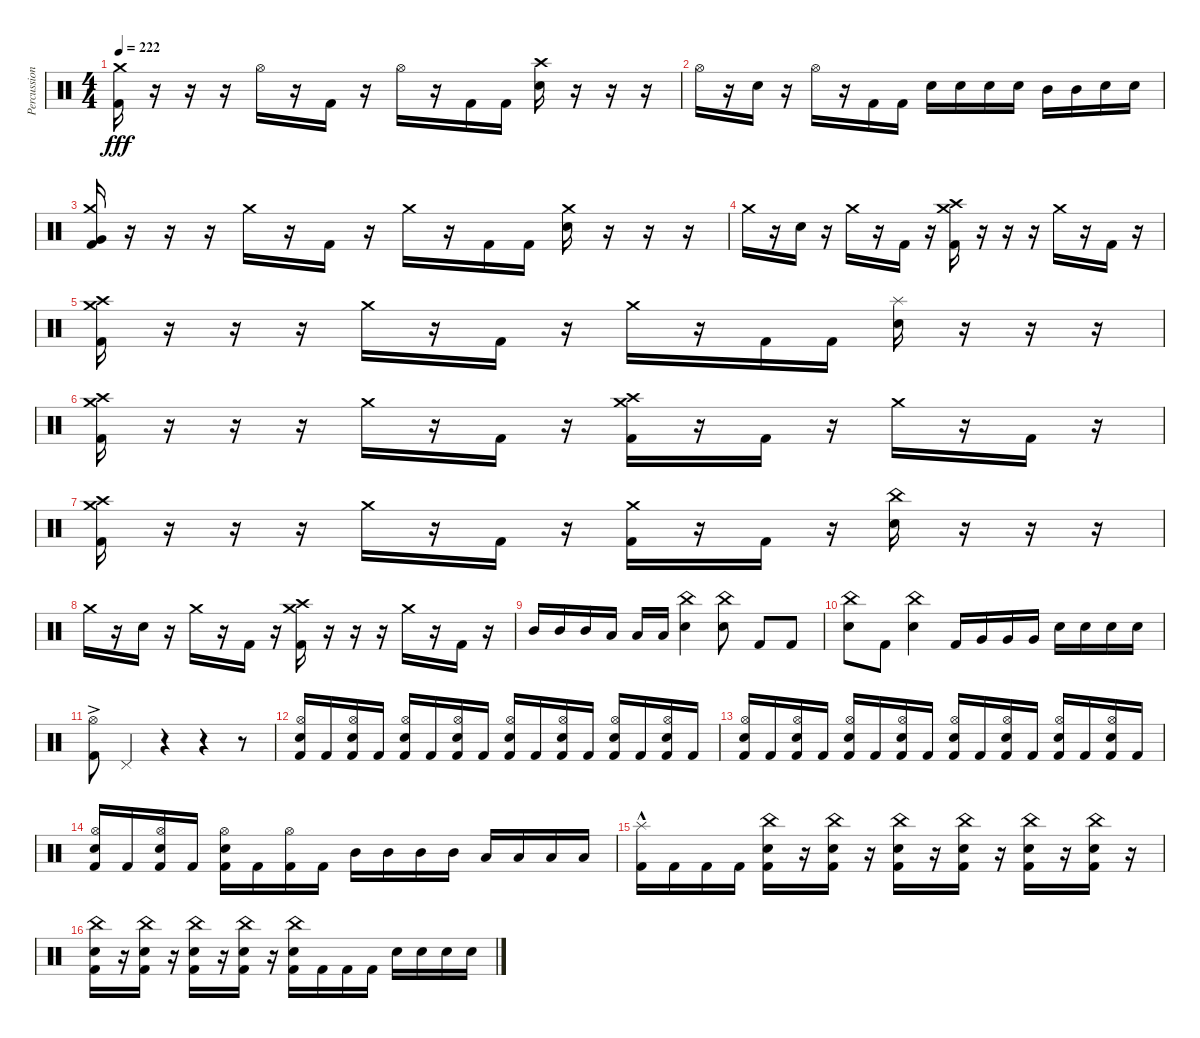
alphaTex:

\track ("Percussion" "Percussion") {instrument percussion}
\staff {score}
\articulation defaults
\ts (4 4)
\tempo 222
\clef neutral
\ks c
("Kick (hit) 2" "Crash medium (hit)").16{dy fff} r.16 r.16 r.16 "Hi-Hat (open)".16 r.16 "Kick (hit) 2".16 r.16 "Hi-Hat (open)".16 r.16 "Kick (hit) 2".16 "Kick (hit) 2".16 ("Electric Snare (hit)" "Crash high (hit)").16 r.16 r.16 r.16 |
"Hi-Hat (open)".16 r.16 "Electric Snare (hit)".16 r.16 "Hi-Hat (open)".16 r.16 "Kick (hit) 2".16 "Kick (hit) 2".16 "Electric Snare (hit)".16 "Electric Snare (hit)".16 "Electric Snare (hit)".16 "Electric Snare (hit)".16 "Mid Tom (hit)".16 "Mid Tom (hit)".16 "Electric Snare (hit)".16 "Electric Snare (hit)".16 |
("Kick (hit) 2" "Very Low Tom (hit)" "Crash medium (hit)").16 r.16 r.16 r.16 "Crash medium (hit)".16 r.16 "Kick (hit) 2".16 r.16 "Crash medium (hit)".16 r.16 "Kick (hit) 2".16 "Kick (hit) 2".16 ("Electric Snare (hit)" "Crash medium (hit)").16 r.16 r.16 r.16 |
"Crash medium (hit)".16 r.16 "Electric Snare (hit)".16 r.16 "Crash medium (hit)".16 r.16 "Kick (hit) 2".16 r.16 ("Kick (hit) 2" "Crash high (hit)" "Crash medium (hit)").16 r.16 r.16 r.16 "Crash medium (hit)".16 r.16 "Kick (hit) 2".16 r.16 |
("Kick (hit) 2" "Crash medium (hit)" "Crash high (hit)").16 r.16 r.16 r.16 "Crash medium (hit)".16 r.16 "Kick (hit) 2".16 r.16 "Crash medium (hit)".16 r.16 "Kick (hit) 2".16 "Kick (hit) 2".16 ("Electric Snare (hit)" "Splash (hit)").16 r.16 r.16 r.16 |
("Kick (hit) 2" "Crash medium (hit)" "Crash high (hit)").16 r.16 r.16 r.16 "Crash medium (hit)".16 r.16 "Kick (hit) 2".16 r.16 ("Kick (hit) 2" "Crash high (hit)" "Crash medium (hit)").16 r.16 "Kick (hit) 2".16 r.16 "Crash medium (hit)".16 r.16 "Kick (hit) 2".16 r.16 |
("Kick (hit) 2" "Crash high (hit)" "Crash medium (hit)").16 r.16 r.16 r.16 "Crash medium (hit)".16 r.16 "Kick (hit) 2".16 r.16 ("Kick (hit) 2" "Crash medium (hit)").16 r.16 "Kick (hit) 2".16 r.16 ("Electric Snare (hit)" "China (hit)").16 r.16 r.16 r.16 |
"Crash medium (hit)".16 r.16 "Electric Snare (hit)".16 r.16 "Crash medium (hit)".16 r.16 "Kick (hit) 2".16 r.16 ("Kick (hit) 2" "Crash high (hit)" "Crash medium (hit)").16 r.16 r.16 r.16 "Crash medium (hit)".16 r.16 "Kick (hit) 2".16 r.16 |
"Mid Tom (hit)".16 "Mid Tom (hit)".16 "Mid Tom (hit)".16 "Low Tom (hit)".16 "Low Tom (hit)".16 "Low Tom (hit)".16 ("Electric Snare (hit)" "China (hit)").4 ("Electric Snare (hit)" "China (hit)").8 "Kick (hit) 2".8 "Kick (hit) 2".8 |
("Electric Snare (hit)" "China (hit)").8 "Kick (hit) 2".8 ("Electric Snare (hit)" "China (hit)").4 "Kick (hit) 2".16 "Very Low Tom (hit)".16 "Very Low Tom (hit)".16 "Very Low Tom (hit)".16 "Electric Snare (hit)".16 "Electric Snare (hit)".16 "Electric Snare (hit)".16 "Electric Snare (hit)".16 |
("Hi-Hat (open)"{ac} "Kick (hit) 2").8 "Pedal Hi-Hat (hit)".4 r.4 r.4 r.8 |
("Hi-Hat (open)" "Electric Snare (hit)" "Kick (hit) 2").16 "Kick (hit) 2".16 ("Hi-Hat (open)" "Electric Snare (hit)" "Kick (hit) 2").16 "Kick (hit) 2".16 ("Hi-Hat (open)" "Electric Snare (hit)" "Kick (hit) 2").16 "Kick (hit) 2".16 ("Hi-Hat (open)" "Electric Snare (hit)" "Kick (hit) 2").16 "Kick (hit) 2".16 ("Hi-Hat (open)" "Electric Snare (hit)" "Kick (hit) 2").16 "Kick (hit) 2".16 ("Hi-Hat (open)" "Electric Snare (hit)" "Kick (hit) 2").16 "Kick (hit) 2".16 ("Hi-Hat (open)" "Electric Snare (hit)" "Kick (hit) 2").16 "Kick (hit) 2".16 ("Hi-Hat (open)" "Electric Snare (hit)" "Kick (hit) 2").16 "Kick (hit) 2".16 |
("Hi-Hat (open)" "Electric Snare (hit)" "Kick (hit) 2").16 "Kick (hit) 2".16 ("Hi-Hat (open)" "Electric Snare (hit)" "Kick (hit) 2").16 "Kick (hit) 2".16 ("Hi-Hat (open)" "Electric Snare (hit)" "Kick (hit) 2").16 "Kick (hit) 2".16 ("Hi-Hat (open)" "Electric Snare (hit)" "Kick (hit) 2").16 "Kick (hit) 2".16 ("Hi-Hat (open)" "Electric Snare (hit)" "Kick (hit) 2").16 "Kick (hit) 2".16 ("Hi-Hat (open)" "Electric Snare (hit)" "Kick (hit) 2").16 "Kick (hit) 2".16 ("Hi-Hat (open)" "Electric Snare (hit)" "Kick (hit) 2").16 "Kick (hit) 2".16 ("Hi-Hat (open)" "Electric Snare (hit)" "Kick (hit) 2").16 "Kick (hit) 2".16 |
("Hi-Hat (open)" "Electric Snare (hit)" "Kick (hit) 2").16 "Kick (hit) 2".16 ("Hi-Hat (open)" "Electric Snare (hit)" "Kick (hit) 2").16 "Kick (hit) 2".16 ("Hi-Hat (open)" "Electric Snare (hit)" "Kick (hit) 2").16 "Kick (hit) 2".16 ("Hi-Hat (open)" "Kick (hit) 2").16 "Kick (hit) 2".16 "Mid Tom (hit)".16 "Mid Tom (hit)".16 "Mid Tom (hit)".16 "Mid Tom (hit)".16 "Low Tom (hit)".16 "Low Tom (hit)".16 "Low Tom (hit)".16 "Low Tom (hit)".16 |
("Splash (hit)"{hac} "Kick (hit) 2").16 "Kick (hit) 2".16 "Kick (hit) 2".16 "Kick (hit) 2".16 ("China (hit)" "Electric Snare (hit)" "Kick (hit) 2").16 r.16 ("China (hit)" "Electric Snare (hit)" "Kick (hit) 2").16 r.16 ("China (hit)" "Electric Snare (hit)" "Kick (hit) 2").16 r.16 ("China (hit)" "Electric Snare (hit)" "Kick (hit) 2").16 r.16 ("China (hit)" "Electric Snare (hit)" "Kick (hit) 2").16 r.16 ("China (hit)" "Electric Snare (hit)" "Kick (hit) 2").16 r.16 |
("China (hit)" "Electric Snare (hit)" "Kick (hit) 2").16 r.16 ("China (hit)" "Electric Snare (hit)" "Kick (hit) 2").16 r.16 ("China (hit)" "Electric Snare (hit)" "Kick (hit) 2").16 r.16 ("China (hit)" "Electric Snare (hit)" "Kick (hit) 2").16 r.16 ("China (hit)" "Electric Snare (hit)" "Kick (hit) 2").16 "Kick (hit) 2".16 "Kick (hit) 2".16 "Kick (hit) 2".16 "Electric Snare (hit)".16 "Electric Snare (hit)".16 "Electric Snare (hit)".16 "Electric Snare (hit)".16
